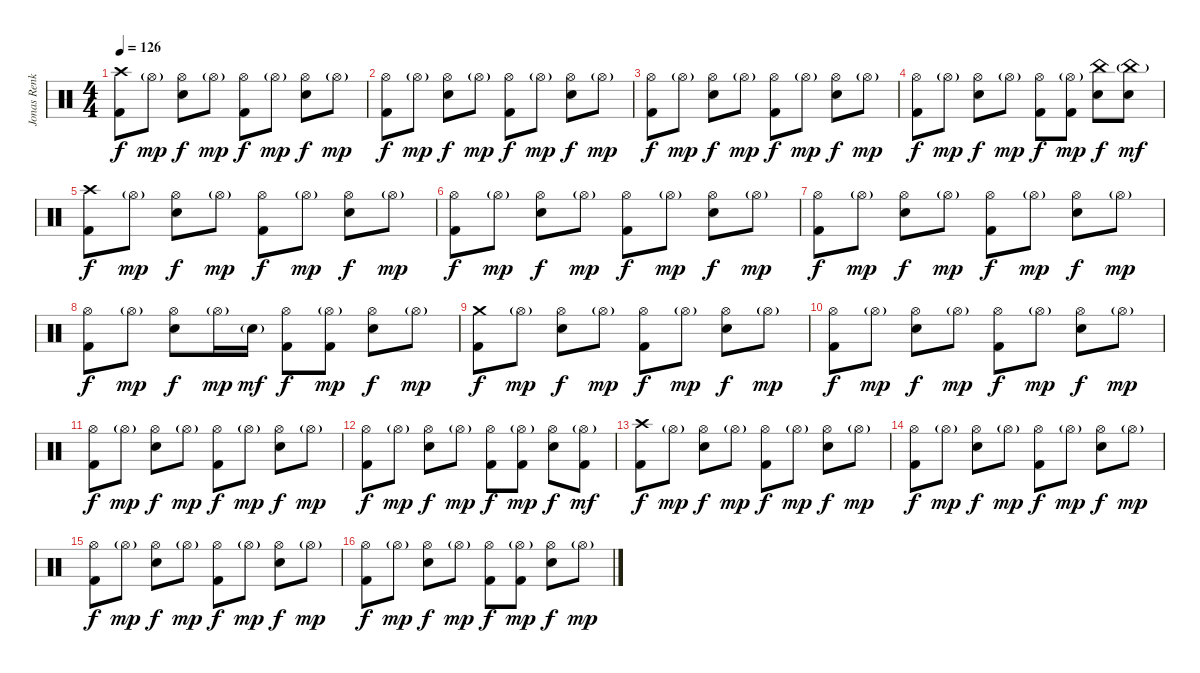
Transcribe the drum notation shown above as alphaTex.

\track ("Jonas Renkse" "Jonas Renk") {instrument percussion}
\staff {score}
\articulation defaults
\ts (4 4)
\tempo 126
\clef neutral
\ks c
("Crash high (hit)" "Kick (hit) 2").8{dy f} "Hi-Hat (open)"{g}.8{dy mp} ("Hi-Hat (open)" "Electric Snare (hit)").8{dy f} "Hi-Hat (open)"{g}.8{dy mp} ("Hi-Hat (open)" "Kick (hit) 2").8{dy f} "Hi-Hat (open)"{g}.8{dy mp} ("Hi-Hat (open)" "Electric Snare (hit)").8{dy f} "Hi-Hat (open)"{g}.8{dy mp} |
("Hi-Hat (open)" "Kick (hit) 2").8{dy f} "Hi-Hat (open)"{g}.8{dy mp} ("Hi-Hat (open)" "Electric Snare (hit)").8{dy f} "Hi-Hat (open)"{g}.8{dy mp} ("Hi-Hat (open)" "Kick (hit) 2").8{dy f} "Hi-Hat (open)"{g}.8{dy mp} ("Hi-Hat (open)" "Electric Snare (hit)").8{dy f} "Hi-Hat (open)"{g}.8{dy mp} |
("Hi-Hat (open)" "Kick (hit) 2").8{dy f} "Hi-Hat (open)"{g}.8{dy mp} ("Hi-Hat (open)" "Electric Snare (hit)").8{dy f} "Hi-Hat (open)"{g}.8{dy mp} ("Hi-Hat (open)" "Kick (hit) 2").8{dy f} "Hi-Hat (open)"{g}.8{dy mp} ("Hi-Hat (open)" "Electric Snare (hit)").8{dy f} "Hi-Hat (open)"{g}.8{dy mp} |
("Hi-Hat (open)" "Kick (hit) 2").8{dy f} "Hi-Hat (open)"{g}.8{dy mp} ("Hi-Hat (open)" "Electric Snare (hit)").8{dy f} "Hi-Hat (open)"{g}.8{dy mp} ("Hi-Hat (open)" "Kick (hit) 2").8{dy f} ("Hi-Hat (open)"{g} "Kick (hit) 2").8{dy mp} ("China (hit)" "Electric Snare (hit)").8{dy f} ("China (hit)"{g} "Electric Snare (hit)").8{dy mf} |
("Crash high (hit)" "Kick (hit) 2").8{dy f} "Hi-Hat (open)"{g}.8{dy mp} ("Hi-Hat (open)" "Electric Snare (hit)").8{dy f} "Hi-Hat (open)"{g}.8{dy mp} ("Hi-Hat (open)" "Kick (hit) 2").8{dy f} "Hi-Hat (open)"{g}.8{dy mp} ("Hi-Hat (open)" "Electric Snare (hit)").8{dy f} "Hi-Hat (open)"{g}.8{dy mp} |
("Hi-Hat (open)" "Kick (hit) 2").8{dy f} "Hi-Hat (open)"{g}.8{dy mp} ("Hi-Hat (open)" "Electric Snare (hit)").8{dy f} "Hi-Hat (open)"{g}.8{dy mp} ("Hi-Hat (open)" "Kick (hit) 2").8{dy f} "Hi-Hat (open)"{g}.8{dy mp} ("Hi-Hat (open)" "Electric Snare (hit)").8{dy f} "Hi-Hat (open)"{g}.8{dy mp} |
("Hi-Hat (open)" "Kick (hit) 2").8{dy f} "Hi-Hat (open)"{g}.8{dy mp} ("Hi-Hat (open)" "Electric Snare (hit)").8{dy f} "Hi-Hat (open)"{g}.8{dy mp} ("Hi-Hat (open)" "Kick (hit) 2").8{dy f} "Hi-Hat (open)"{g}.8{dy mp} ("Hi-Hat (open)" "Electric Snare (hit)").8{dy f} "Hi-Hat (open)"{g}.8{dy mp} |
("Hi-Hat (open)" "Kick (hit) 2").8{dy f} "Hi-Hat (open)"{g}.8{dy mp} ("Hi-Hat (open)" "Electric Snare (hit)").8{dy f} "Hi-Hat (open)"{g}.16{dy mp} "Electric Snare (hit)"{g}.16{dy mf} ("Hi-Hat (open)" "Kick (hit) 2").8{dy f} ("Hi-Hat (open)"{g} "Kick (hit) 2").8{dy mp} ("Hi-Hat (open)" "Electric Snare (hit)").8{dy f} "Hi-Hat (open)"{g}.8{dy mp} |
("Crash medium (hit)" "Kick (hit) 2").8{dy f} "Hi-Hat (open)"{g}.8{dy mp} ("Hi-Hat (open)" "Electric Snare (hit)").8{dy f} "Hi-Hat (open)"{g}.8{dy mp} ("Hi-Hat (open)" "Kick (hit) 2").8{dy f} "Hi-Hat (open)"{g}.8{dy mp} ("Hi-Hat (open)" "Electric Snare (hit)").8{dy f} "Hi-Hat (open)"{g}.8{dy mp} |
("Hi-Hat (open)" "Kick (hit) 2").8{dy f} "Hi-Hat (open)"{g}.8{dy mp} ("Hi-Hat (open)" "Electric Snare (hit)").8{dy f} "Hi-Hat (open)"{g}.8{dy mp} ("Hi-Hat (open)" "Kick (hit) 2").8{dy f} "Hi-Hat (open)"{g}.8{dy mp} ("Hi-Hat (open)" "Electric Snare (hit)").8{dy f} "Hi-Hat (open)"{g}.8{dy mp} |
("Hi-Hat (open)" "Kick (hit) 2").8{dy f} "Hi-Hat (open)"{g}.8{dy mp} ("Hi-Hat (open)" "Electric Snare (hit)").8{dy f} "Hi-Hat (open)"{g}.8{dy mp} ("Hi-Hat (open)" "Kick (hit) 2").8{dy f} "Hi-Hat (open)"{g}.8{dy mp} ("Hi-Hat (open)" "Electric Snare (hit)").8{dy f} "Hi-Hat (open)"{g}.8{dy mp} |
("Hi-Hat (open)" "Kick (hit) 2").8{dy f} "Hi-Hat (open)"{g}.8{dy mp} ("Hi-Hat (open)" "Electric Snare (hit)").8{dy f} "Hi-Hat (open)"{g}.8{dy mp} ("Hi-Hat (open)" "Kick (hit) 2").8{dy f} ("Hi-Hat (open)"{g} "Kick (hit) 2").8{dy mp} ("Hi-Hat (open)" "Electric Snare (hit)").8{dy f} ("Hi-Hat (open)"{g} "Kick (hit) 2").8{dy mf} |
("Crash high (hit)" "Kick (hit) 2").8{dy f} "Hi-Hat (open)"{g}.8{dy mp} ("Hi-Hat (open)" "Electric Snare (hit)").8{dy f} "Hi-Hat (open)"{g}.8{dy mp} ("Hi-Hat (open)" "Kick (hit) 2").8{dy f} "Hi-Hat (open)"{g}.8{dy mp} ("Hi-Hat (open)" "Electric Snare (hit)").8{dy f} "Hi-Hat (open)"{g}.8{dy mp} |
("Hi-Hat (open)" "Kick (hit) 2").8{dy f} "Hi-Hat (open)"{g}.8{dy mp} ("Hi-Hat (open)" "Electric Snare (hit)").8{dy f} "Hi-Hat (open)"{g}.8{dy mp} ("Hi-Hat (open)" "Kick (hit) 2").8{dy f} "Hi-Hat (open)"{g}.8{dy mp} ("Hi-Hat (open)" "Electric Snare (hit)").8{dy f} "Hi-Hat (open)"{g}.8{dy mp} |
("Hi-Hat (open)" "Kick (hit) 2").8{dy f} "Hi-Hat (open)"{g}.8{dy mp} ("Hi-Hat (open)" "Electric Snare (hit)").8{dy f} "Hi-Hat (open)"{g}.8{dy mp} ("Hi-Hat (open)" "Kick (hit) 2").8{dy f} "Hi-Hat (open)"{g}.8{dy mp} ("Hi-Hat (open)" "Electric Snare (hit)").8{dy f} "Hi-Hat (open)"{g}.8{dy mp} |
("Hi-Hat (open)" "Kick (hit) 2").8{dy f} "Hi-Hat (open)"{g}.8{dy mp} ("Hi-Hat (open)" "Electric Snare (hit)").8{dy f} "Hi-Hat (open)"{g}.8{dy mp} ("Hi-Hat (open)" "Kick (hit) 2").8{dy f} ("Hi-Hat (open)"{g} "Kick (hit) 2").8{dy mp} ("Hi-Hat (open)" "Electric Snare (hit)").8{dy f} "Hi-Hat (open)"{g}.8{dy mp}
